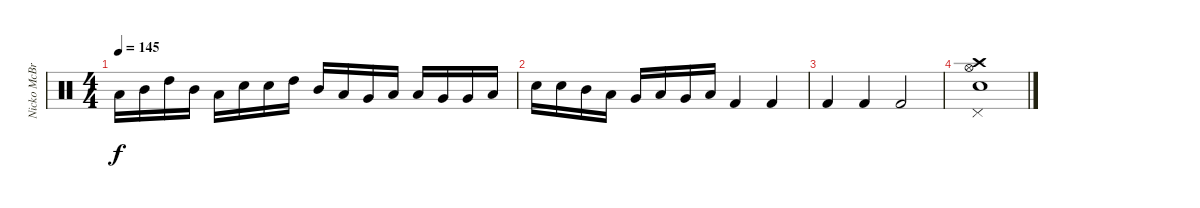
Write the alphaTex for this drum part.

\track ("Nicko McBrain" "Nicko McBr") {instrument percussion}
\staff {score}
\articulation defaults
\ts (4 4)
\tempo 145
\clef neutral
\ks c "Low Tom (hit)".16{dy f} "Mid Tom (hit)".16 "High Tom (hit)".16 "Mid Tom (hit)".16 "Low Tom (hit)".16 "Snare (hit) 2".16 "Snare (hit) 2".16 "High Tom (hit)".16 "Mid Tom (hit)".16 "Low Tom (hit)".16 "Very Low Tom (hit)".16 "Low Floor Tom (hit)".16 "Low Tom (hit)".16 "Very Low Tom (hit)".16 "Very Low Tom (hit)".16 "Low Floor Tom (hit)".16
|
"Snare (hit) 2".16 "Snare (hit) 2".16 "Mid Tom (hit)".16 "Low Tom (hit)".16 "Very Low Tom (hit)".16 "Low Tom (hit)".16 "Very Low Tom (hit)".16 "Low Floor Tom (hit)".16 "Kick (hit) 2".4 "Kick (hit) 2".4 |
"Kick (hit) 2".4 "Kick (hit) 2".4 "Kick (hit) 2".2 |
("Snare (hit) 2" "Pedal Hi-Hat (hit)" "Hi-Hat (open)" "Crash high (hit)").1
